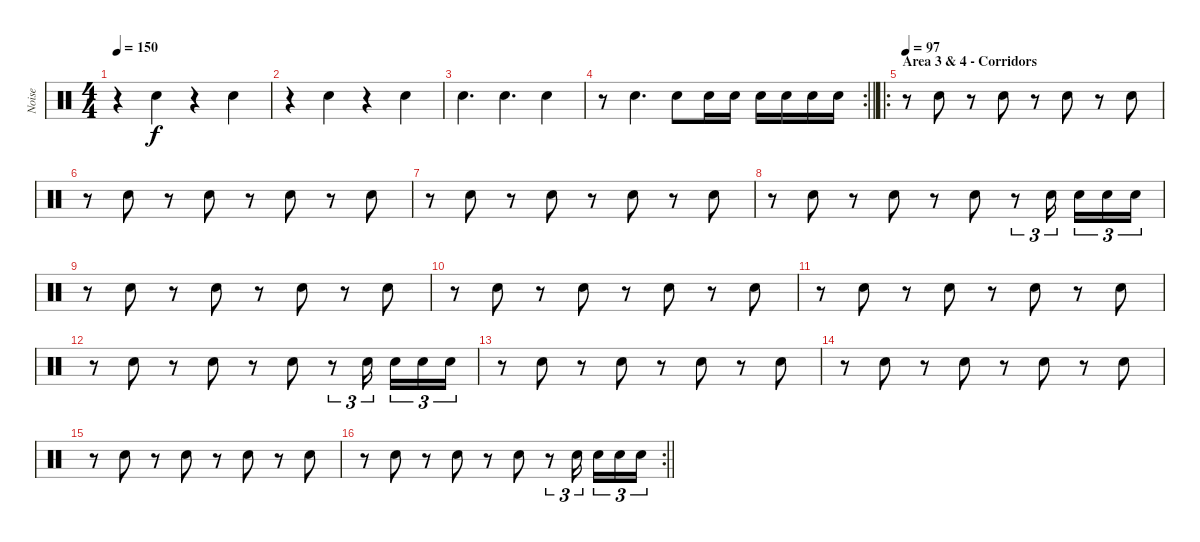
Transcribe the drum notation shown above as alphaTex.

\track ("Noise" "Noise") {instrument percussion}
\staff {score}
\articulation defaults
\ts (4 4)
\tempo 150
\clef neutral
\ks c
r.4{dy f} "Snare (hit) 2".4 r.4 "Snare (hit) 2".4 |
r.4 "Snare (hit) 2".4 r.4 "Snare (hit) 2".4 |
"Snare (hit) 2".4{d} "Snare (hit) 2".4{d} "Snare (hit) 2".4 |
\rc 2
\barLineRight lightlight
r.8 "Snare (hit) 2".4{d} "Snare (hit) 2".8 "Snare (hit) 2".16 "Snare (hit) 2".16 "Snare (hit) 2".16 "Snare (hit) 2".16 "Snare (hit) 2".16 "Snare (hit) 2".16 |
\ro
\section ("" "Area 3 & 4 - Corridors")
\tempo 97
r.8{volume 13} "Snare (hit) 2".8 r.8 "Snare (hit) 2".8 r.8 "Snare (hit) 2".8 r.8 "Snare (hit) 2".8 |
r.8 "Snare (hit) 2".8 r.8 "Snare (hit) 2".8 r.8 "Snare (hit) 2".8 r.8 "Snare (hit) 2".8 |
r.8 "Snare (hit) 2".8 r.8 "Snare (hit) 2".8 r.8 "Snare (hit) 2".8 r.8 "Snare (hit) 2".8 |
r.8 "Snare (hit) 2".8 r.8 "Snare (hit) 2".8 r.8 "Snare (hit) 2".8 r.8{tu (3 2)} "Snare (hit) 2".16{tu (3 2) beam splitsecondary} "Snare (hit) 2".16{tu (3 2)} "Snare (hit) 2".16{tu (3 2)} "Snare (hit) 2".16{tu (3 2)} |
r.8 "Snare (hit) 2".8 r.8 "Snare (hit) 2".8 r.8 "Snare (hit) 2".8 r.8 "Snare (hit) 2".8 |
r.8 "Snare (hit) 2".8 r.8 "Snare (hit) 2".8 r.8 "Snare (hit) 2".8 r.8 "Snare (hit) 2".8 |
r.8 "Snare (hit) 2".8 r.8 "Snare (hit) 2".8 r.8 "Snare (hit) 2".8 r.8 "Snare (hit) 2".8 |
r.8 "Snare (hit) 2".8 r.8 "Snare (hit) 2".8 r.8 "Snare (hit) 2".8 r.8{tu (3 2)} "Snare (hit) 2".16{tu (3 2) beam splitsecondary} "Snare (hit) 2".16{tu (3 2)} "Snare (hit) 2".16{tu (3 2)} "Snare (hit) 2".16{tu (3 2)} |
r.8 "Snare (hit) 2".8 r.8 "Snare (hit) 2".8 r.8 "Snare (hit) 2".8 r.8 "Snare (hit) 2".8 |
r.8 "Snare (hit) 2".8 r.8 "Snare (hit) 2".8 r.8 "Snare (hit) 2".8 r.8 "Snare (hit) 2".8 |
r.8 "Snare (hit) 2".8 r.8 "Snare (hit) 2".8 r.8 "Snare (hit) 2".8 r.8 "Snare (hit) 2".8 |
\rc 2
\barLineRight lightlight
r.8 "Snare (hit) 2".8 r.8 "Snare (hit) 2".8 r.8 "Snare (hit) 2".8 r.8{tu (3 2)} "Snare (hit) 2".16{tu (3 2) beam splitsecondary} "Snare (hit) 2".16{tu (3 2)} "Snare (hit) 2".16{tu (3 2)} "Snare (hit) 2".16{tu (3 2)}
